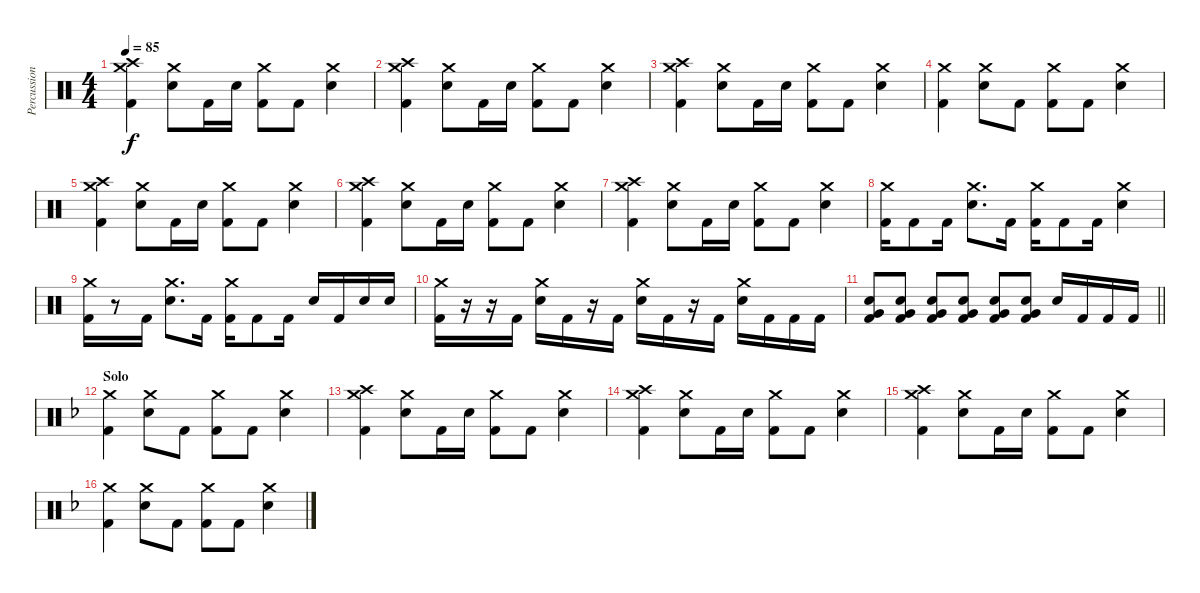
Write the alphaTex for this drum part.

\track ("Percussions" "Percussion") {instrument percussion}
\staff {score}
\articulation defaults
\ts (4 4)
\tempo 85
\clef neutral
\ks c
("Crash high (hit)" "Kick (hit) 2" "Crash medium (hit)").4{dy f} ("Electric Snare (hit)" "Crash medium (hit)").8 "Kick (hit) 2".16 "Electric Snare (hit)".16 ("Kick (hit) 2" "Crash medium (hit)").8 "Kick (hit) 2".8 ("Electric Snare (hit)" "Crash medium (hit)").4 |
("Crash high (hit)" "Kick (hit) 2" "Crash medium (hit)").4 ("Electric Snare (hit)" "Crash medium (hit)").8 "Kick (hit) 2".16 "Electric Snare (hit)".16 ("Kick (hit) 2" "Crash medium (hit)").8 "Kick (hit) 2".8 ("Electric Snare (hit)" "Crash medium (hit)").4 |
("Crash high (hit)" "Kick (hit) 2" "Crash medium (hit)").4 ("Electric Snare (hit)" "Crash medium (hit)").8 "Kick (hit) 2".16 "Electric Snare (hit)".16 ("Kick (hit) 2" "Crash medium (hit)").8 "Kick (hit) 2".8 ("Electric Snare (hit)" "Crash medium (hit)").4 |
("Kick (hit) 2" "Crash medium (hit)").4 ("Electric Snare (hit)" "Crash medium (hit)").8 "Kick (hit) 2".8 ("Kick (hit) 2" "Crash medium (hit)").8 "Kick (hit) 2".8 ("Electric Snare (hit)" "Crash medium (hit)").4 |
("Crash high (hit)" "Kick (hit) 2" "Crash medium (hit)").4 ("Electric Snare (hit)" "Crash medium (hit)").8 "Kick (hit) 2".16 "Electric Snare (hit)".16 ("Kick (hit) 2" "Crash medium (hit)").8 "Kick (hit) 2".8 ("Electric Snare (hit)" "Crash medium (hit)").4 |
("Crash high (hit)" "Kick (hit) 2" "Crash medium (hit)").4 ("Electric Snare (hit)" "Crash medium (hit)").8 "Kick (hit) 2".16 "Electric Snare (hit)".16 ("Kick (hit) 2" "Crash medium (hit)").8 "Kick (hit) 2".8 ("Electric Snare (hit)" "Crash medium (hit)").4 |
("Crash high (hit)" "Kick (hit) 2" "Crash medium (hit)").4 ("Electric Snare (hit)" "Crash medium (hit)").8 "Kick (hit) 2".16 "Electric Snare (hit)".16 ("Kick (hit) 2" "Crash medium (hit)").8 "Kick (hit) 2".8 ("Electric Snare (hit)" "Crash medium (hit)").4 |
("Kick (hit) 2" "Crash medium (hit)").16 "Kick (hit) 2".8 "Kick (hit) 2".16 ("Electric Snare (hit)" "Crash medium (hit)").8{d} "Kick (hit) 2".16 ("Kick (hit) 2" "Crash medium (hit)").16 "Kick (hit) 2".8 "Kick (hit) 2".16 ("Electric Snare (hit)" "Crash medium (hit)").4 |
("Kick (hit) 2" "Crash medium (hit)").16 r.8 "Kick (hit) 2".16 ("Electric Snare (hit)" "Crash medium (hit)").8{d} "Kick (hit) 2".16 ("Kick (hit) 2" "Crash medium (hit)").16 "Kick (hit) 2".8 "Kick (hit) 2".16 "Electric Snare (hit)".16 "Kick (hit) 2".16 "Electric Snare (hit)".16 "Electric Snare (hit)".16 |
("Kick (hit) 2" "Crash medium (hit)").16 r.16 r.16 "Kick (hit) 2".16 ("Electric Snare (hit)" "Crash medium (hit)").16 "Kick (hit) 2".16 r.16 "Kick (hit) 2".16 ("Electric Snare (hit)" "Crash medium (hit)").16 "Kick (hit) 2".16 r.16 "Kick (hit) 2".16 ("Electric Snare (hit)" "Crash medium (hit)").16 "Kick (hit) 2".16 "Kick (hit) 2".16 "Kick (hit) 2".16 |
\barLineRight lightlight
("Electric Snare (hit)" "Kick (hit) 2" "Very Low Tom (hit)").8 ("Electric Snare (hit)" "Kick (hit) 2" "Very Low Tom (hit)").8 ("Electric Snare (hit)" "Kick (hit) 2" "Very Low Tom (hit)").8 ("Electric Snare (hit)" "Kick (hit) 2" "Very Low Tom (hit)").8 ("Electric Snare (hit)" "Kick (hit) 2" "Very Low Tom (hit)").8 ("Electric Snare (hit)" "Kick (hit) 2" "Very Low Tom (hit)").8 "Electric Snare (hit)".16 "Kick (hit) 2".16 "Kick (hit) 2".16 "Kick (hit) 2".16 |
\section ("" "Solo")
\ks f
("Kick (hit) 2" "Crash medium (hit)").4 ("Electric Snare (hit)" "Crash medium (hit)").8 "Kick (hit) 2".8 ("Kick (hit) 2" "Crash medium (hit)").8 "Kick (hit) 2".8 ("Electric Snare (hit)" "Crash medium (hit)").4 |
("Crash high (hit)" "Kick (hit) 2" "Crash medium (hit)").4 ("Electric Snare (hit)" "Crash medium (hit)").8 "Kick (hit) 2".16 "Electric Snare (hit)".16 ("Kick (hit) 2" "Crash medium (hit)").8 "Kick (hit) 2".8 ("Electric Snare (hit)" "Crash medium (hit)").4 |
("Crash high (hit)" "Kick (hit) 2" "Crash medium (hit)").4 ("Electric Snare (hit)" "Crash medium (hit)").8 "Kick (hit) 2".16 "Electric Snare (hit)".16 ("Kick (hit) 2" "Crash medium (hit)").8 "Kick (hit) 2".8 ("Electric Snare (hit)" "Crash medium (hit)").4 |
("Crash high (hit)" "Kick (hit) 2" "Crash medium (hit)").4 ("Electric Snare (hit)" "Crash medium (hit)").8 "Kick (hit) 2".16 "Electric Snare (hit)".16 ("Kick (hit) 2" "Crash medium (hit)").8 "Kick (hit) 2".8 ("Electric Snare (hit)" "Crash medium (hit)").4 |
("Kick (hit) 2" "Crash medium (hit)").4 ("Electric Snare (hit)" "Crash medium (hit)").8 "Kick (hit) 2".8 ("Kick (hit) 2" "Crash medium (hit)").8 "Kick (hit) 2".8 ("Electric Snare (hit)" "Crash medium (hit)").4
